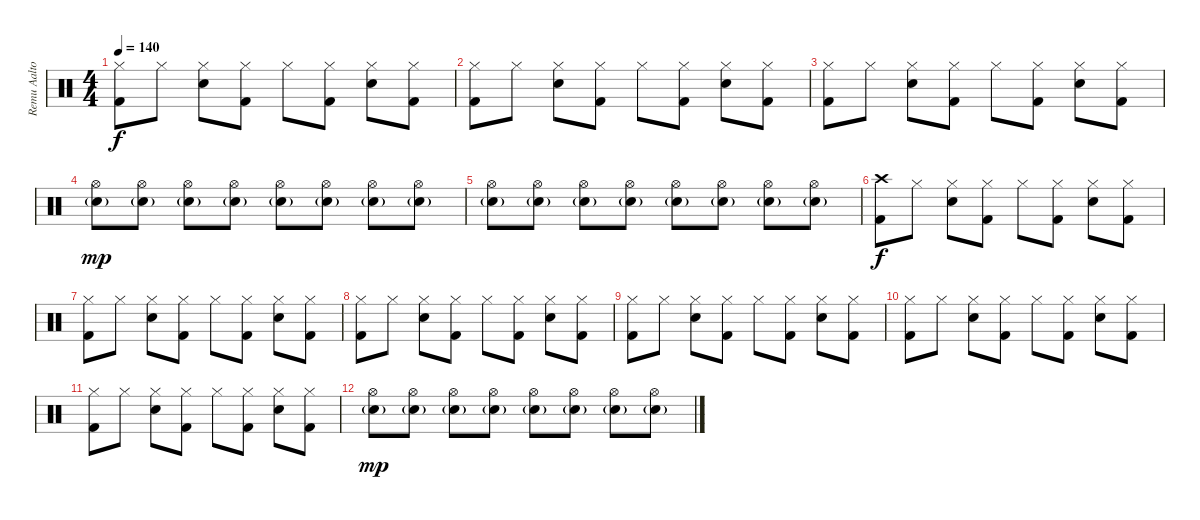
\track ("Remu Aaltonen" "Remu Aalto") {instrument percussion}
\staff {score}
\articulation defaults
\ts (4 4)
\tempo 140
\clef neutral
\ks c
("Hi-Hat (closed)" "Kick (hit) 2").8{dy f} "Hi-Hat (closed)".8 ("Hi-Hat (closed)" "Snare (hit) 2").8 ("Hi-Hat (closed)" "Kick (hit) 2").8 "Hi-Hat (closed)".8 ("Hi-Hat (closed)" "Kick (hit) 2").8 ("Hi-Hat (closed)" "Snare (hit) 2").8 ("Hi-Hat (closed)" "Kick (hit) 2").8 |
("Hi-Hat (closed)" "Kick (hit) 2").8 "Hi-Hat (closed)".8 ("Hi-Hat (closed)" "Snare (hit) 2").8 ("Hi-Hat (closed)" "Kick (hit) 2").8 "Hi-Hat (closed)".8 ("Hi-Hat (closed)" "Kick (hit) 2").8 ("Hi-Hat (closed)" "Snare (hit) 2").8 ("Hi-Hat (closed)" "Kick (hit) 2").8 |
("Hi-Hat (closed)" "Kick (hit) 2").8 "Hi-Hat (closed)".8 ("Hi-Hat (closed)" "Snare (hit) 2").8 ("Hi-Hat (closed)" "Kick (hit) 2").8 "Hi-Hat (closed)".8 ("Hi-Hat (closed)" "Kick (hit) 2").8 ("Hi-Hat (closed)" "Snare (hit) 2").8 ("Hi-Hat (closed)" "Kick (hit) 2").8 |
("Hi-Hat (open)" "Snare (hit) 2"{g}).8{dy mp} ("Hi-Hat (open)" "Snare (hit) 2"{g}).8 ("Hi-Hat (open)" "Snare (hit) 2"{g}).8 ("Hi-Hat (open)" "Snare (hit) 2"{g}).8 ("Hi-Hat (open)" "Snare (hit) 2"{g}).8 ("Hi-Hat (open)" "Snare (hit) 2"{g}).8 ("Hi-Hat (open)" "Snare (hit) 2"{g}).8 ("Hi-Hat (open)" "Snare (hit) 2"{g}).8 |
("Hi-Hat (open)" "Snare (hit) 2"{g}).8 ("Hi-Hat (open)" "Snare (hit) 2"{g}).8 ("Hi-Hat (open)" "Snare (hit) 2"{g}).8 ("Hi-Hat (open)" "Snare (hit) 2"{g}).8 ("Hi-Hat (open)" "Snare (hit) 2"{g}).8 ("Hi-Hat (open)" "Snare (hit) 2"{g}).8 ("Hi-Hat (open)" "Snare (hit) 2"{g}).8 ("Hi-Hat (open)" "Snare (hit) 2"{g}).8 |
("Crash high (hit)" "Kick (hit) 2").8{dy f} "Hi-Hat (closed)".8 ("Hi-Hat (closed)" "Snare (hit) 2").8 ("Hi-Hat (closed)" "Kick (hit) 2").8 "Hi-Hat (closed)".8 ("Hi-Hat (closed)" "Kick (hit) 2").8 ("Hi-Hat (closed)" "Snare (hit) 2").8 ("Hi-Hat (closed)" "Kick (hit) 2").8 |
("Hi-Hat (closed)" "Kick (hit) 2").8 "Hi-Hat (closed)".8 ("Hi-Hat (closed)" "Snare (hit) 2").8 ("Hi-Hat (closed)" "Kick (hit) 2").8 "Hi-Hat (closed)".8 ("Hi-Hat (closed)" "Kick (hit) 2").8 ("Hi-Hat (closed)" "Snare (hit) 2").8 ("Hi-Hat (closed)" "Kick (hit) 2").8 |
("Hi-Hat (closed)" "Kick (hit) 2").8 "Hi-Hat (closed)".8 ("Hi-Hat (closed)" "Snare (hit) 2").8 ("Hi-Hat (closed)" "Kick (hit) 2").8 "Hi-Hat (closed)".8 ("Hi-Hat (closed)" "Kick (hit) 2").8 ("Hi-Hat (closed)" "Snare (hit) 2").8 ("Hi-Hat (closed)" "Kick (hit) 2").8 |
("Hi-Hat (closed)" "Kick (hit) 2").8 "Hi-Hat (closed)".8 ("Hi-Hat (closed)" "Snare (hit) 2").8 ("Hi-Hat (closed)" "Kick (hit) 2").8 "Hi-Hat (closed)".8 ("Hi-Hat (closed)" "Kick (hit) 2").8 ("Hi-Hat (closed)" "Snare (hit) 2").8 ("Hi-Hat (closed)" "Kick (hit) 2").8 |
("Hi-Hat (closed)" "Kick (hit) 2").8 "Hi-Hat (closed)".8 ("Hi-Hat (closed)" "Snare (hit) 2").8 ("Hi-Hat (closed)" "Kick (hit) 2").8 "Hi-Hat (closed)".8 ("Hi-Hat (closed)" "Kick (hit) 2").8 ("Hi-Hat (closed)" "Snare (hit) 2").8 ("Hi-Hat (closed)" "Kick (hit) 2").8 |
("Hi-Hat (closed)" "Kick (hit) 2").8 "Hi-Hat (closed)".8 ("Hi-Hat (closed)" "Snare (hit) 2").8 ("Hi-Hat (closed)" "Kick (hit) 2").8 "Hi-Hat (closed)".8 ("Hi-Hat (closed)" "Kick (hit) 2").8 ("Hi-Hat (closed)" "Snare (hit) 2").8 ("Hi-Hat (closed)" "Kick (hit) 2").8 |
("Hi-Hat (open)" "Snare (hit) 2"{g}).8{dy mp} ("Hi-Hat (open)" "Snare (hit) 2"{g}).8 ("Hi-Hat (open)" "Snare (hit) 2"{g}).8 ("Hi-Hat (open)" "Snare (hit) 2"{g}).8 ("Hi-Hat (open)" "Snare (hit) 2"{g}).8 ("Hi-Hat (open)" "Snare (hit) 2"{g}).8 ("Hi-Hat (open)" "Snare (hit) 2"{g}).8 ("Hi-Hat (open)" "Snare (hit) 2"{g}).8
